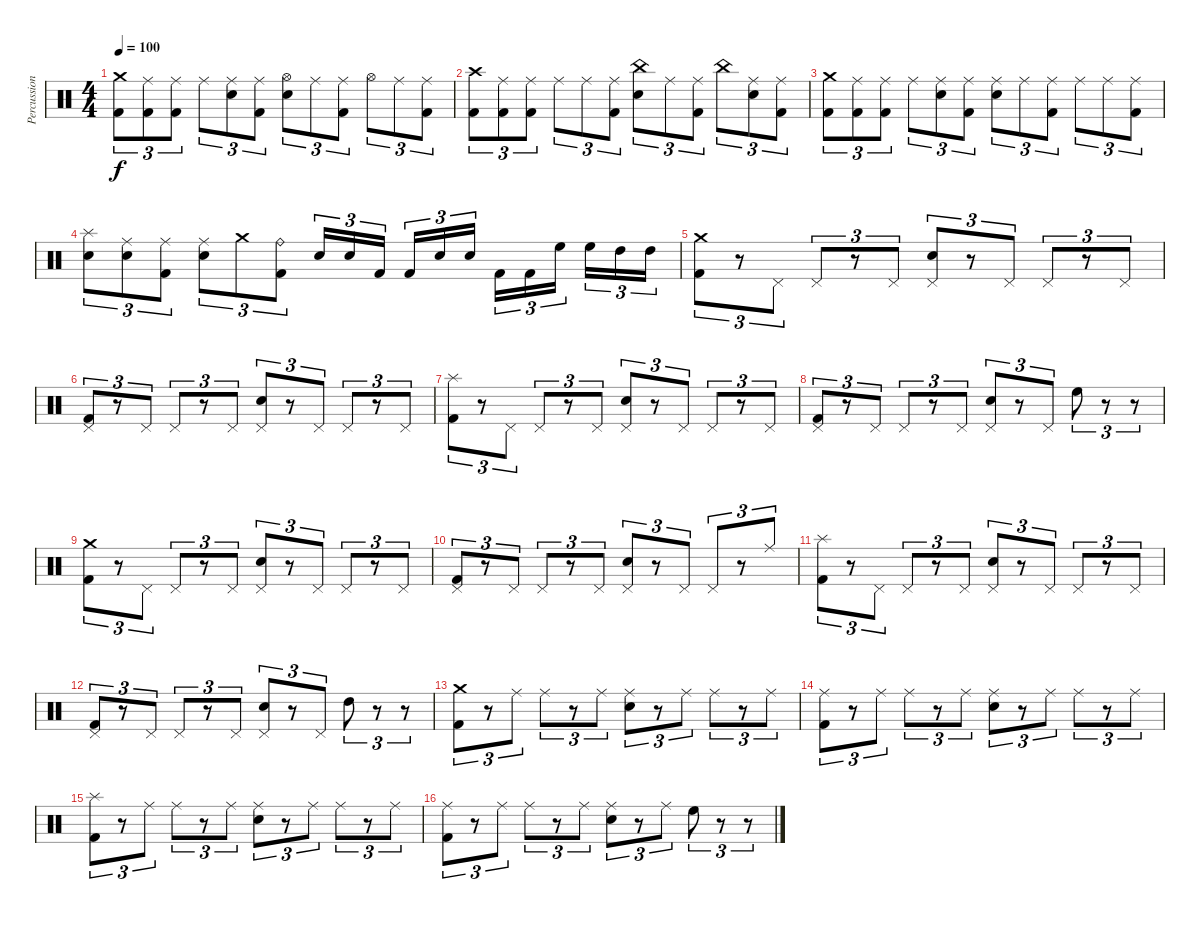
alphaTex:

\track ("Percussion" "Percussion") {instrument percussion}
\staff {score}
\articulation defaults
\ts (4 4)
\tempo 100
\clef neutral
\ks c
("Crash medium (hit)" "Kick (hit) 2").8{tu (3 2) dy f} ("Ride (middle)" "Kick (hit) 2").8{tu (3 2)} ("Ride (middle)" "Kick (hit) 2").8{tu (3 2)} "Ride (middle)".8{tu (3 2)} ("Ride (middle)" "Electric Snare (hit)").8{tu (3 2)} ("Ride (middle)" "Kick (hit) 2").8{tu (3 2)} ("Hi-Hat (open)" "Electric Snare (hit)").8{tu (3 2)} "Ride (middle)".8{tu (3 2)} ("Ride (middle)" "Kick (hit) 2").8{tu (3 2)} "Hi-Hat (open)".8{tu (3 2)} "Ride (middle)".8{tu (3 2)} ("Ride (middle)" "Kick (hit) 2").8{tu (3 2)} |
("Crash high (hit)" "Kick (hit) 2").8{tu (3 2)} ("Ride (middle)" "Kick (hit) 2").8{tu (3 2)} ("Ride (middle)" "Kick (hit) 2").8{tu (3 2)} "Ride (middle)".8{tu (3 2)} "Ride (middle)".8{tu (3 2)} ("Ride (middle)" "Kick (hit) 2").8{tu (3 2)} ("China (hit)" "Electric Snare (hit)").8{tu (3 2)} "Ride (middle)".8{tu (3 2)} ("Ride (middle)" "Kick (hit) 2").8{tu (3 2)} "China (hit)".8{tu (3 2)} ("Ride (middle)" "Electric Snare (hit)").8{tu (3 2)} ("Ride (middle)" "Kick (hit) 2").8{tu (3 2)} |
("Crash medium (hit)" "Kick (hit) 2").8{tu (3 2)} ("Ride (middle)" "Kick (hit) 2").8{tu (3 2)} ("Ride (middle)" "Kick (hit) 2").8{tu (3 2)} "Ride (middle)".8{tu (3 2)} ("Ride (middle)" "Electric Snare (hit)").8{tu (3 2)} ("Ride (middle)" "Kick (hit) 2").8{tu (3 2)} ("Ride (middle)" "Electric Snare (hit)").8{tu (3 2)} "Ride (middle)".8{tu (3 2)} ("Ride (middle)" "Kick (hit) 2").8{tu (3 2)} "Ride (middle)".8{tu (3 2)} "Ride (middle)".8{tu (3 2)} ("Ride (middle)" "Kick (hit) 2").8{tu (3 2)} |
("Splash (hit)" "Electric Snare (hit)").8{tu (3 2)} ("Ride (middle)" "Electric Snare (hit)").8{tu (3 2)} ("Ride (middle)" "Kick (hit) 2").8{tu (3 2)} ("Ride (middle)" "Electric Snare (hit)").8{tu (3 2)} "Crash medium (hit)".8{tu (3 2)} ("Ride (bell)" "Kick (hit) 2").8{tu (3 2)} "Electric Snare (hit)".16{tu (3 2)} "Electric Snare (hit)".16{tu (3 2)} "Kick (hit) 2".16{tu (3 2) beam splitsecondary} "Kick (hit) 2".16{tu (3 2)} "Electric Snare (hit)".16{tu (3 2)} "Electric Snare (hit)".16{tu (3 2)} "Kick (hit) 2".16{tu (3 2)} "Kick (hit) 2".16{tu (3 2)} "High Floor Tom (hit)".16{tu (3 2) beam splitsecondary} "High Floor Tom (hit)".16{tu (3 2)} "High Tom (hit)".16{tu (3 2)} "High Tom (hit)".16{tu (3 2)} |
("Crash medium (hit)" "Kick (hit) 2").8{tu (3 2)} r.8{tu (3 2)} "Pedal Hi-Hat (hit)".8{tu (3 2)} "Pedal Hi-Hat (hit)".8{tu (3 2)} r.8{tu (3 2)} "Pedal Hi-Hat (hit)".8{tu (3 2)} ("Pedal Hi-Hat (hit)" "Electric Snare (hit)").8{tu (3 2)} r.8{tu (3 2)} "Pedal Hi-Hat (hit)".8{tu (3 2)} "Pedal Hi-Hat (hit)".8{tu (3 2)} r.8{tu (3 2)} "Pedal Hi-Hat (hit)".8{tu (3 2)} |
("Pedal Hi-Hat (hit)" "Kick (hit) 2").8{tu (3 2)} r.8{tu (3 2)} "Pedal Hi-Hat (hit)".8{tu (3 2)} "Pedal Hi-Hat (hit)".8{tu (3 2)} r.8{tu (3 2)} "Pedal Hi-Hat (hit)".8{tu (3 2)} ("Pedal Hi-Hat (hit)" "Electric Snare (hit)").8{tu (3 2)} r.8{tu (3 2)} "Pedal Hi-Hat (hit)".8{tu (3 2)} "Pedal Hi-Hat (hit)".8{tu (3 2)} r.8{tu (3 2)} "Pedal Hi-Hat (hit)".8{tu (3 2)} |
("Splash (hit)" "Kick (hit) 2").8{tu (3 2)} r.8{tu (3 2)} "Pedal Hi-Hat (hit)".8{tu (3 2)} "Pedal Hi-Hat (hit)".8{tu (3 2)} r.8{tu (3 2)} "Pedal Hi-Hat (hit)".8{tu (3 2)} ("Pedal Hi-Hat (hit)" "Electric Snare (hit)").8{tu (3 2)} r.8{tu (3 2)} "Pedal Hi-Hat (hit)".8{tu (3 2)} "Pedal Hi-Hat (hit)".8{tu (3 2)} r.8{tu (3 2)} "Pedal Hi-Hat (hit)".8{tu (3 2)} |
("Pedal Hi-Hat (hit)" "Kick (hit) 2").8{tu (3 2)} r.8{tu (3 2)} "Pedal Hi-Hat (hit)".8{tu (3 2)} "Pedal Hi-Hat (hit)".8{tu (3 2)} r.8{tu (3 2)} "Pedal Hi-Hat (hit)".8{tu (3 2)} ("Pedal Hi-Hat (hit)" "Electric Snare (hit)").8{tu (3 2)} r.8{tu (3 2)} "Pedal Hi-Hat (hit)".8{tu (3 2)} "High Floor Tom (hit)".8{tu (3 2)} r.8{tu (3 2)} r.8{tu (3 2)} |
("Crash medium (hit)" "Kick (hit) 2").8{tu (3 2)} r.8{tu (3 2)} "Pedal Hi-Hat (hit)".8{tu (3 2)} "Pedal Hi-Hat (hit)".8{tu (3 2)} r.8{tu (3 2)} "Pedal Hi-Hat (hit)".8{tu (3 2)} ("Pedal Hi-Hat (hit)" "Electric Snare (hit)").8{tu (3 2)} r.8{tu (3 2)} "Pedal Hi-Hat (hit)".8{tu (3 2)} "Pedal Hi-Hat (hit)".8{tu (3 2)} r.8{tu (3 2)} "Pedal Hi-Hat (hit)".8{tu (3 2)} |
("Pedal Hi-Hat (hit)" "Kick (hit) 2").8{tu (3 2)} r.8{tu (3 2)} "Pedal Hi-Hat (hit)".8{tu (3 2)} "Pedal Hi-Hat (hit)".8{tu (3 2)} r.8{tu (3 2)} "Pedal Hi-Hat (hit)".8{tu (3 2)} ("Pedal Hi-Hat (hit)" "Electric Snare (hit)").8{tu (3 2)} r.8{tu (3 2)} "Pedal Hi-Hat (hit)".8{tu (3 2)} "Pedal Hi-Hat (hit)".8{tu (3 2)} r.8{tu (3 2)} "Ride (middle)".8{tu (3 2)} |
("Splash (hit)" "Kick (hit) 2").8{tu (3 2)} r.8{tu (3 2)} "Pedal Hi-Hat (hit)".8{tu (3 2)} "Pedal Hi-Hat (hit)".8{tu (3 2)} r.8{tu (3 2)} "Pedal Hi-Hat (hit)".8{tu (3 2)} ("Pedal Hi-Hat (hit)" "Electric Snare (hit)").8{tu (3 2)} r.8{tu (3 2)} "Pedal Hi-Hat (hit)".8{tu (3 2)} "Pedal Hi-Hat (hit)".8{tu (3 2)} r.8{tu (3 2)} "Pedal Hi-Hat (hit)".8{tu (3 2)} |
("Pedal Hi-Hat (hit)" "Kick (hit) 2").8{tu (3 2)} r.8{tu (3 2)} "Pedal Hi-Hat (hit)".8{tu (3 2)} "Pedal Hi-Hat (hit)".8{tu (3 2)} r.8{tu (3 2)} "Pedal Hi-Hat (hit)".8{tu (3 2)} ("Pedal Hi-Hat (hit)" "Electric Snare (hit)").8{tu (3 2)} r.8{tu (3 2)} "Pedal Hi-Hat (hit)".8{tu (3 2)} "High Tom (hit)".8{tu (3 2)} r.8{tu (3 2)} r.8{tu (3 2)} |
("Crash medium (hit)" "Kick (hit) 2").8{tu (3 2)} r.8{tu (3 2)} "Ride (middle)".8{tu (3 2)} "Ride (middle)".8{tu (3 2)} r.8{tu (3 2)} "Ride (middle)".8{tu (3 2)} ("Ride (middle)" "Electric Snare (hit)").8{tu (3 2)} r.8{tu (3 2)} "Ride (middle)".8{tu (3 2)} "Ride (middle)".8{tu (3 2)} r.8{tu (3 2)} "Ride (middle)".8{tu (3 2)} |
("Ride (middle)" "Kick (hit) 2").8{tu (3 2)} r.8{tu (3 2)} "Ride (middle)".8{tu (3 2)} "Ride (middle)".8{tu (3 2)} r.8{tu (3 2)} "Ride (middle)".8{tu (3 2)} ("Ride (middle)" "Electric Snare (hit)").8{tu (3 2)} r.8{tu (3 2)} "Ride (middle)".8{tu (3 2)} "Ride (middle)".8{tu (3 2)} r.8{tu (3 2)} "Ride (middle)".8{tu (3 2)} |
("Splash (hit)" "Kick (hit) 2").8{tu (3 2)} r.8{tu (3 2)} "Ride (middle)".8{tu (3 2)} "Ride (middle)".8{tu (3 2)} r.8{tu (3 2)} "Ride (middle)".8{tu (3 2)} ("Ride (middle)" "Electric Snare (hit)").8{tu (3 2)} r.8{tu (3 2)} "Ride (middle)".8{tu (3 2)} "Ride (middle)".8{tu (3 2)} r.8{tu (3 2)} "Ride (middle)".8{tu (3 2)} |
("Ride (middle)" "Kick (hit) 2").8{tu (3 2)} r.8{tu (3 2)} "Ride (middle)".8{tu (3 2)} "Ride (middle)".8{tu (3 2)} r.8{tu (3 2)} "Ride (middle)".8{tu (3 2)} ("Ride (middle)" "Electric Snare (hit)").8{tu (3 2)} r.8{tu (3 2)} "Ride (middle)".8{tu (3 2)} "High Floor Tom (hit)".8{tu (3 2)} r.8{tu (3 2)} r.8{tu (3 2)}
